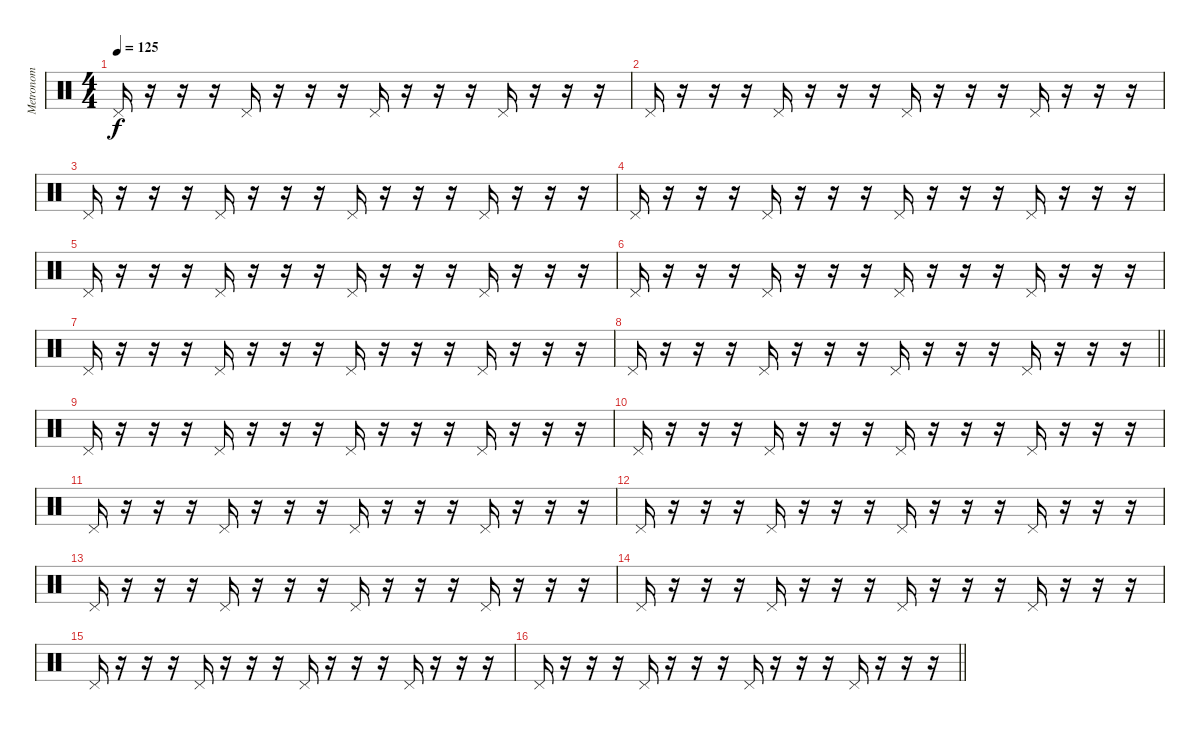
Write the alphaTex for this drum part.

\track ("Metronom" "Metronom") {instrument percussion}
\staff {score}
\articulation defaults
\ts (4 4)
\section ("" "")
\tempo 125
\clef neutral
\ks c "Pedal Hi-Hat (hit)".16{dy f}
r.16 r.16 r.16 "Pedal Hi-Hat (hit)".16 r.16 r.16 r.16 "Pedal Hi-Hat (hit)".16 r.16 r.16 r.16 "Pedal Hi-Hat (hit)".16 r.16 r.16 r.16 |
"Pedal Hi-Hat (hit)".16 r.16 r.16 r.16 "Pedal Hi-Hat (hit)".16 r.16 r.16 r.16 "Pedal Hi-Hat (hit)".16 r.16 r.16 r.16 "Pedal Hi-Hat (hit)".16 r.16 r.16 r.16 |
"Pedal Hi-Hat (hit)".16 r.16 r.16 r.16 "Pedal Hi-Hat (hit)".16 r.16 r.16 r.16 "Pedal Hi-Hat (hit)".16 r.16 r.16 r.16 "Pedal Hi-Hat (hit)".16 r.16 r.16 r.16 |
"Pedal Hi-Hat (hit)".16 r.16 r.16 r.16 "Pedal Hi-Hat (hit)".16 r.16 r.16 r.16 "Pedal Hi-Hat (hit)".16 r.16 r.16 r.16 "Pedal Hi-Hat (hit)".16 r.16 r.16 r.16 |
"Pedal Hi-Hat (hit)".16 r.16 r.16 r.16 "Pedal Hi-Hat (hit)".16 r.16 r.16 r.16 "Pedal Hi-Hat (hit)".16 r.16 r.16 r.16 "Pedal Hi-Hat (hit)".16 r.16 r.16 r.16 |
"Pedal Hi-Hat (hit)".16 r.16 r.16 r.16 "Pedal Hi-Hat (hit)".16 r.16 r.16 r.16 "Pedal Hi-Hat (hit)".16 r.16 r.16 r.16 "Pedal Hi-Hat (hit)".16 r.16 r.16 r.16 |
"Pedal Hi-Hat (hit)".16 r.16 r.16 r.16 "Pedal Hi-Hat (hit)".16 r.16 r.16 r.16 "Pedal Hi-Hat (hit)".16 r.16 r.16 r.16 "Pedal Hi-Hat (hit)".16 r.16 r.16 r.16 |
\barLineRight lightlight "Pedal Hi-Hat (hit)".16
r.16 r.16 r.16 "Pedal Hi-Hat (hit)".16 r.16 r.16 r.16 "Pedal Hi-Hat (hit)".16 r.16 r.16 r.16 "Pedal Hi-Hat (hit)".16 r.16 r.16 r.16 |
\section ("" "")
"Pedal Hi-Hat (hit)".16 r.16 r.16 r.16 "Pedal Hi-Hat (hit)".16 r.16 r.16 r.16 "Pedal Hi-Hat (hit)".16 r.16 r.16 r.16 "Pedal Hi-Hat (hit)".16 r.16 r.16 r.16 |
"Pedal Hi-Hat (hit)".16 r.16 r.16 r.16 "Pedal Hi-Hat (hit)".16 r.16 r.16 r.16 "Pedal Hi-Hat (hit)".16 r.16 r.16 r.16 "Pedal Hi-Hat (hit)".16 r.16 r.16 r.16 |
"Pedal Hi-Hat (hit)".16 r.16 r.16 r.16 "Pedal Hi-Hat (hit)".16 r.16 r.16 r.16 "Pedal Hi-Hat (hit)".16 r.16 r.16 r.16 "Pedal Hi-Hat (hit)".16 r.16 r.16 r.16 |
"Pedal Hi-Hat (hit)".16 r.16 r.16 r.16 "Pedal Hi-Hat (hit)".16 r.16 r.16 r.16 "Pedal Hi-Hat (hit)".16 r.16 r.16 r.16 "Pedal Hi-Hat (hit)".16 r.16 r.16 r.16 |
"Pedal Hi-Hat (hit)".16 r.16 r.16 r.16 "Pedal Hi-Hat (hit)".16 r.16 r.16 r.16 "Pedal Hi-Hat (hit)".16 r.16 r.16 r.16 "Pedal Hi-Hat (hit)".16 r.16 r.16 r.16 |
"Pedal Hi-Hat (hit)".16 r.16 r.16 r.16 "Pedal Hi-Hat (hit)".16 r.16 r.16 r.16 "Pedal Hi-Hat (hit)".16 r.16 r.16 r.16 "Pedal Hi-Hat (hit)".16 r.16 r.16 r.16 |
"Pedal Hi-Hat (hit)".16 r.16 r.16 r.16 "Pedal Hi-Hat (hit)".16 r.16 r.16 r.16 "Pedal Hi-Hat (hit)".16 r.16 r.16 r.16 "Pedal Hi-Hat (hit)".16 r.16 r.16 r.16 |
\barLineRight lightlight "Pedal Hi-Hat (hit)".16
r.16 r.16 r.16 "Pedal Hi-Hat (hit)".16 r.16 r.16 r.16 "Pedal Hi-Hat (hit)".16 r.16 r.16 r.16 "Pedal Hi-Hat (hit)".16 r.16 r.16 r.16
